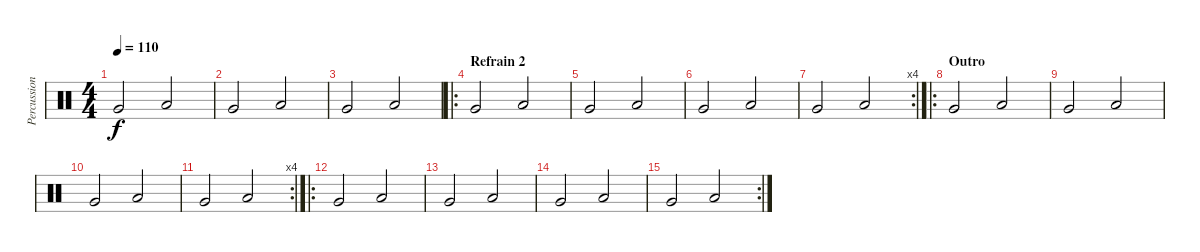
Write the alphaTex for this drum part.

\track ("Percussions" "Percussion") {instrument percussion}
\staff {score}
\articulation defaults
\ts (4 4)
\tempo 110
\clef neutral
\ks c "Very Low Tom (hit)".2{dy f} "Low Floor Tom (hit)".2
|
"Very Low Tom (hit)".2 "Low Floor Tom (hit)".2 |
"Very Low Tom (hit)".2 "Low Floor Tom (hit)".2 |
\ro
\section ("" "Refrain 2")
"Very Low Tom (hit)".2 "Low Floor Tom (hit)".2 |
"Very Low Tom (hit)".2 "Low Floor Tom (hit)".2 |
"Very Low Tom (hit)".2 "Low Floor Tom (hit)".2 |
\rc 4 "Very Low Tom (hit)".2 "Low Floor Tom (hit)".2
|
\ro
\section ("" "Outro")
"Very Low Tom (hit)".2 "Low Floor Tom (hit)".2 |
"Very Low Tom (hit)".2 "Low Floor Tom (hit)".2 |
"Very Low Tom (hit)".2 "Low Floor Tom (hit)".2 |
\rc 4 "Very Low Tom (hit)".2 "Low Floor Tom (hit)".2
|
\ro "Very Low Tom (hit)".2 "Low Floor Tom (hit)".2
|
"Very Low Tom (hit)".2 "Low Floor Tom (hit)".2 |
"Very Low Tom (hit)".2 "Low Floor Tom (hit)".2 |
\rc 2 "Very Low Tom (hit)".2 "Low Floor Tom (hit)".2
